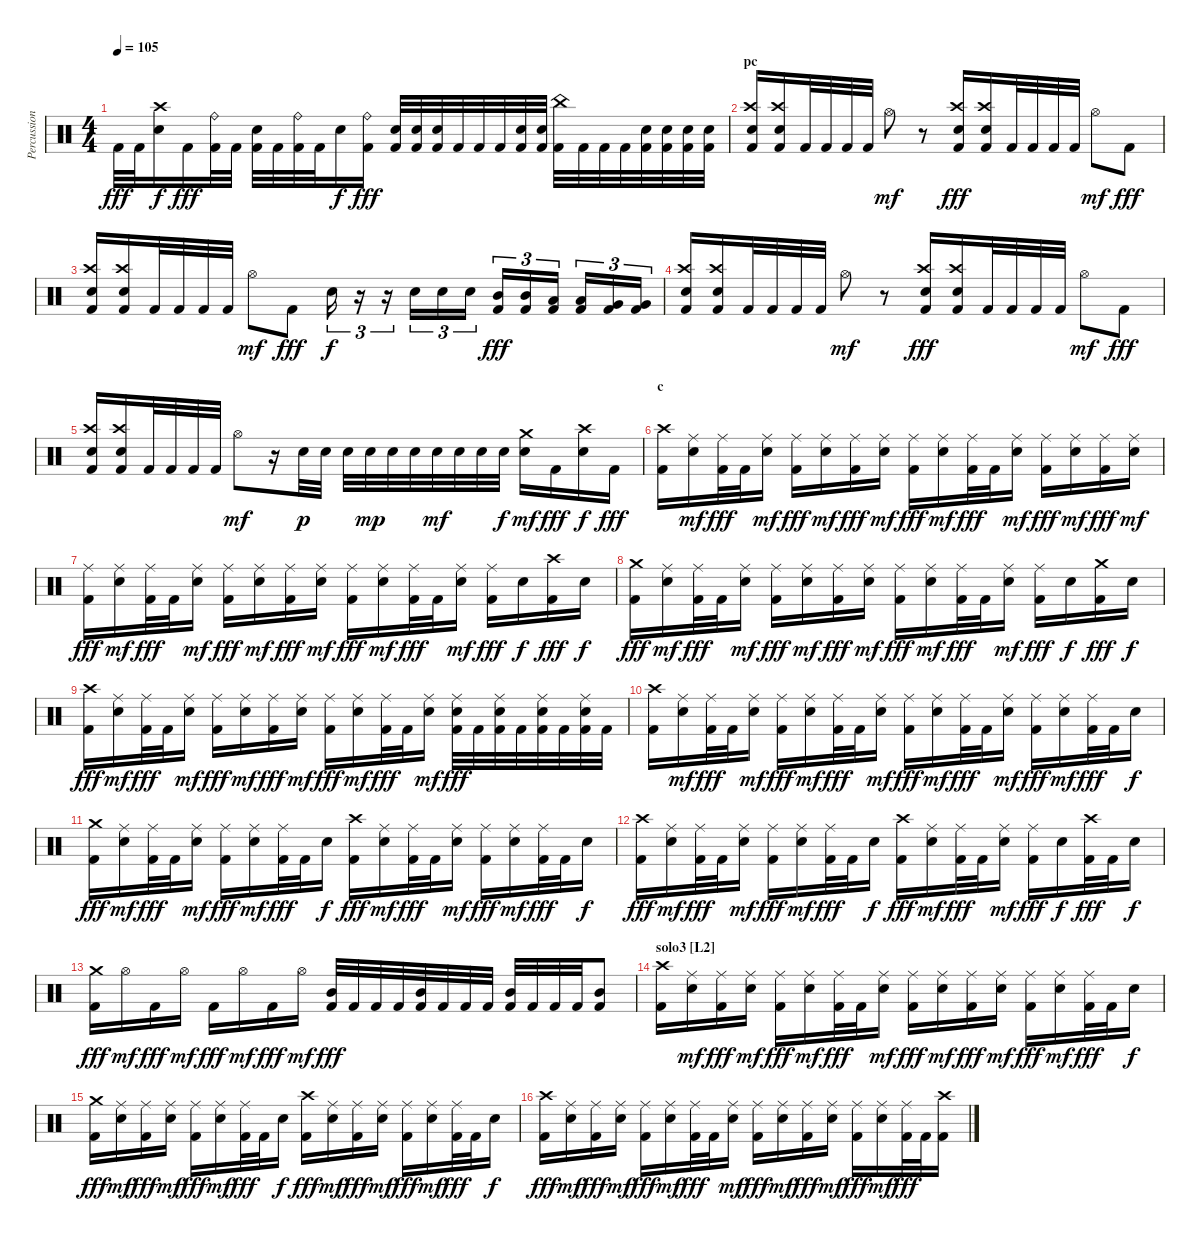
\track ("Percussion" "Percussion") {instrument percussion}
\staff {score}
\articulation defaults
\ts (4 4)
\tempo 105
\clef neutral
\ks c "Kick (hit) 2".32{dy fff} "Kick (hit) 2".32
("Crash high (hit)" "Snare (hit) 2").16{dy f} "Kick (hit) 2".16{dy fff} ("Ride (bell)" "Kick (hit) 2").32 "Kick (hit) 2".32 ("Snare (hit) 2" "Kick (hit) 2").32 "Kick (hit) 2".32 ("Ride (bell)" "Kick (hit) 2").32 "Kick (hit) 2".32 "Snare (hit) 2".16{dy f} ("Ride (bell)" "Kick (hit) 2").16{dy fff} ("Snare (hit) 2" "Kick (hit) 2").32 ("Snare (hit) 2" "Kick (hit) 2").32 ("Snare (hit) 2" "Kick (hit) 2").32 "Kick (hit) 2".32 "Kick (hit) 2".32 "Kick (hit) 2".32 ("Snare (hit) 2" "Kick (hit) 2").32 ("Snare (hit) 2" "Kick (hit) 2").32 ("China (hit)" "Kick (hit) 2").32 "Kick (hit) 2".32 "Kick (hit) 2".32 "Kick (hit) 2".32 ("Snare (hit) 2" "Kick (hit) 2").32 ("Snare (hit) 2" "Kick (hit) 2").32 ("Snare (hit) 2" "Kick (hit) 2").32 ("Snare (hit) 2" "Kick (hit) 2").32 |
\section ("" "pc")
("Crash high (hit)" "Snare (hit) 2" "Kick (hit) 2").16 ("Crash high (hit)" "Snare (hit) 2" "Kick (hit) 2").16 "Kick (hit) 2".32 "Kick (hit) 2".32 "Kick (hit) 2".32 "Kick (hit) 2".32 "Hi-Hat (open)".8{dy mf} r.8 ("Crash high (hit)" "Snare (hit) 2" "Kick (hit) 2").16{dy fff} ("Crash high (hit)" "Snare (hit) 2" "Kick (hit) 2").16 "Kick (hit) 2".32 "Kick (hit) 2".32 "Kick (hit) 2".32 "Kick (hit) 2".32 "Hi-Hat (open)".8{dy mf} "Kick (hit) 2".8{dy fff} |
("Crash high (hit)" "Snare (hit) 2" "Kick (hit) 2").16 ("Crash high (hit)" "Snare (hit) 2" "Kick (hit) 2").16 "Kick (hit) 2".32 "Kick (hit) 2".32 "Kick (hit) 2".32 "Kick (hit) 2".32 "Hi-Hat (open)".8{dy mf} "Kick (hit) 2".8{dy fff} "Snare (hit) 2".16{tu (3 2) dy f} r.16{tu (3 2)} r.16{tu (3 2)} "Snare (hit) 2".16{tu (3 2)} "Snare (hit) 2".16{tu (3 2)} "Snare (hit) 2".16{tu (3 2)} ("Mid Tom (hit)" "Kick (hit) 2").16{tu (3 2) dy fff} ("Mid Tom (hit)" "Kick (hit) 2").16{tu (3 2)} ("Low Tom (hit)" "Kick (hit) 2").16{tu (3 2)} ("Low Tom (hit)" "Kick (hit) 2").16{tu (3 2)} ("Very Low Tom (hit)" "Kick (hit) 2").16{tu (3 2)} ("Very Low Tom (hit)" "Kick (hit) 2").16{tu (3 2)} |
("Crash high (hit)" "Snare (hit) 2" "Kick (hit) 2").16 ("Crash high (hit)" "Snare (hit) 2" "Kick (hit) 2").16 "Kick (hit) 2".32 "Kick (hit) 2".32 "Kick (hit) 2".32 "Kick (hit) 2".32 "Hi-Hat (open)".8{dy mf} r.8 ("Crash high (hit)" "Snare (hit) 2" "Kick (hit) 2").16{dy fff} ("Crash high (hit)" "Snare (hit) 2" "Kick (hit) 2").16 "Kick (hit) 2".32 "Kick (hit) 2".32 "Kick (hit) 2".32 "Kick (hit) 2".32 "Hi-Hat (open)".8{dy mf} "Kick (hit) 2".8{dy fff} |
("Crash high (hit)" "Snare (hit) 2" "Kick (hit) 2").16 ("Crash high (hit)" "Snare (hit) 2" "Kick (hit) 2").16 "Kick (hit) 2".32 "Kick (hit) 2".32 "Kick (hit) 2".32 "Kick (hit) 2".32 "Hi-Hat (open)".8{dy mf} r.16 "Snare (hit) 2".32{dy p} "Snare (hit) 2".32 "Snare (hit) 2".32 "Snare (hit) 2".32{dy mp} "Snare (hit) 2".32 "Snare (hit) 2".32 "Snare (hit) 2".32{dy mf} "Snare (hit) 2".32 "Snare (hit) 2".32 "Snare (hit) 2".32{dy f} ("Crash medium (hit)" "Snare (hit) 2").16{dy mf} "Kick (hit) 2".16{dy fff} ("Crash high (hit)" "Snare (hit) 2").16{dy f} "Kick (hit) 2".16{dy fff} |
\section ("" "c")
("Crash high (hit)" "Kick (hit) 2").16 ("Ride (middle)" "Snare (hit) 2").16{dy mf} ("Ride (middle)" "Kick (hit) 2").32{dy fff} "Kick (hit) 2".32 ("Ride (middle)" "Snare (hit) 2").16{dy mf} ("Ride (middle)" "Kick (hit) 2").16{dy fff} ("Ride (middle)" "Snare (hit) 2").16{dy mf} ("Ride (middle)" "Kick (hit) 2").16{dy fff} ("Ride (middle)" "Snare (hit) 2").16{dy mf} ("Ride (middle)" "Kick (hit) 2").16{dy fff} ("Ride (middle)" "Snare (hit) 2").16{dy mf} ("Ride (middle)" "Kick (hit) 2").32{dy fff} "Kick (hit) 2".32 ("Ride (middle)" "Snare (hit) 2").16{dy mf} ("Ride (middle)" "Kick (hit) 2").16{dy fff} ("Ride (middle)" "Snare (hit) 2").16{dy mf} ("Ride (middle)" "Kick (hit) 2").16{dy fff} ("Ride (middle)" "Snare (hit) 2").16{dy mf} |
("Ride (middle)" "Kick (hit) 2").16{dy fff} ("Ride (middle)" "Snare (hit) 2").16{dy mf} ("Ride (middle)" "Kick (hit) 2").32{dy fff} "Kick (hit) 2".32 ("Ride (middle)" "Snare (hit) 2").16{dy mf} ("Ride (middle)" "Kick (hit) 2").16{dy fff} ("Ride (middle)" "Snare (hit) 2").16{dy mf} ("Ride (middle)" "Kick (hit) 2").16{dy fff} ("Ride (middle)" "Snare (hit) 2").16{dy mf} ("Ride (middle)" "Kick (hit) 2").16{dy fff} ("Ride (middle)" "Snare (hit) 2").16{dy mf} ("Ride (middle)" "Kick (hit) 2").32{dy fff} "Kick (hit) 2".32 ("Ride (middle)" "Snare (hit) 2").16{dy mf} ("Ride (middle)" "Kick (hit) 2").16{dy fff} "Snare (hit) 2".16{dy f} ("Crash high (hit)" "Kick (hit) 2").16{dy fff} "Snare (hit) 2".16{dy f} |
("Crash medium (hit)" "Kick (hit) 2").16{dy fff} ("Ride (middle)" "Snare (hit) 2").16{dy mf} ("Ride (middle)" "Kick (hit) 2").32{dy fff} "Kick (hit) 2".32 ("Ride (middle)" "Snare (hit) 2").16{dy mf} ("Ride (middle)" "Kick (hit) 2").16{dy fff} ("Ride (middle)" "Snare (hit) 2").16{dy mf} ("Ride (middle)" "Kick (hit) 2").16{dy fff} ("Ride (middle)" "Snare (hit) 2").16{dy mf} ("Ride (middle)" "Kick (hit) 2").16{dy fff} ("Ride (middle)" "Snare (hit) 2").16{dy mf} ("Ride (middle)" "Kick (hit) 2").32{dy fff} "Kick (hit) 2".32 ("Ride (middle)" "Snare (hit) 2").16{dy mf} ("Ride (middle)" "Kick (hit) 2").16{dy fff} "Snare (hit) 2".16{dy f} ("Crash medium (hit)" "Kick (hit) 2").16{dy fff} "Snare (hit) 2".16{dy f} |
("Crash high (hit)" "Kick (hit) 2").16{dy fff} ("Ride (middle)" "Snare (hit) 2").16{dy mf} ("Ride (middle)" "Kick (hit) 2").32{dy fff} "Kick (hit) 2".32 ("Ride (middle)" "Snare (hit) 2").16{dy mf} ("Ride (middle)" "Kick (hit) 2").16{dy fff} ("Ride (middle)" "Snare (hit) 2").16{dy mf} ("Ride (middle)" "Kick (hit) 2").16{dy fff} ("Ride (middle)" "Snare (hit) 2").16{dy mf} ("Ride (middle)" "Kick (hit) 2").16{dy fff} ("Ride (middle)" "Snare (hit) 2").16{dy mf} ("Ride (middle)" "Kick (hit) 2").32{dy fff} "Kick (hit) 2".32 ("Ride (middle)" "Snare (hit) 2").16{dy mf} ("Ride (middle)" "Snare (hit) 2" "Kick (hit) 2").32{dy fff} "Kick (hit) 2".32 ("Ride (middle)" "Snare (hit) 2" "Kick (hit) 2").32 "Kick (hit) 2".32 ("Ride (middle)" "Snare (hit) 2" "Kick (hit) 2").32 "Kick (hit) 2".32 ("Ride (middle)" "Snare (hit) 2" "Kick (hit) 2").32 "Kick (hit) 2".32 |
("Crash high (hit)" "Kick (hit) 2").16 ("Ride (middle)" "Snare (hit) 2").16{dy mf} ("Ride (middle)" "Kick (hit) 2").32{dy fff} "Kick (hit) 2".32 ("Ride (middle)" "Snare (hit) 2").16{dy mf} ("Ride (middle)" "Kick (hit) 2").16{dy fff} ("Ride (middle)" "Snare (hit) 2").16{dy mf} ("Ride (middle)" "Kick (hit) 2").32{dy fff} "Kick (hit) 2".32 ("Ride (middle)" "Snare (hit) 2").16{dy mf} ("Ride (middle)" "Kick (hit) 2").16{dy fff} ("Ride (middle)" "Snare (hit) 2").16{dy mf} ("Ride (middle)" "Kick (hit) 2").32{dy fff} "Kick (hit) 2".32 ("Ride (middle)" "Snare (hit) 2").16{dy mf} ("Ride (middle)" "Kick (hit) 2").16{dy fff} ("Ride (middle)" "Snare (hit) 2").16{dy mf} ("Ride (middle)" "Kick (hit) 2").32{dy fff} "Kick (hit) 2".32 "Snare (hit) 2".16{dy f} |
("Crash medium (hit)" "Kick (hit) 2").16{dy fff} ("Ride (middle)" "Snare (hit) 2").16{dy mf} ("Ride (middle)" "Kick (hit) 2").32{dy fff} "Kick (hit) 2".32 ("Ride (middle)" "Snare (hit) 2").16{dy mf} ("Ride (middle)" "Kick (hit) 2").16{dy fff} ("Ride (middle)" "Snare (hit) 2").16{dy mf} ("Ride (middle)" "Kick (hit) 2").32{dy fff} "Kick (hit) 2".32 "Snare (hit) 2".16{dy f} ("Crash high (hit)" "Kick (hit) 2").16{dy fff} ("Ride (middle)" "Snare (hit) 2").16{dy mf} ("Ride (middle)" "Kick (hit) 2").32{dy fff} "Kick (hit) 2".32 ("Ride (middle)" "Snare (hit) 2").16{dy mf} ("Ride (middle)" "Kick (hit) 2").16{dy fff} ("Ride (middle)" "Snare (hit) 2").16{dy mf} ("Ride (middle)" "Kick (hit) 2").32{dy fff} "Kick (hit) 2".32 "Snare (hit) 2".16{dy f} |
("Crash high (hit)" "Kick (hit) 2").16{dy fff} ("Ride (middle)" "Snare (hit) 2").16{dy mf} ("Ride (middle)" "Kick (hit) 2").32{dy fff} "Kick (hit) 2".32 ("Ride (middle)" "Snare (hit) 2").16{dy mf} ("Ride (middle)" "Kick (hit) 2").16{dy fff} ("Ride (middle)" "Snare (hit) 2").16{dy mf} ("Ride (middle)" "Kick (hit) 2").32{dy fff} "Kick (hit) 2".32 "Snare (hit) 2".16{dy f} ("Crash high (hit)" "Kick (hit) 2").16{dy fff} ("Ride (middle)" "Snare (hit) 2").16{dy mf} ("Ride (middle)" "Kick (hit) 2").32{dy fff} "Kick (hit) 2".32 ("Ride (middle)" "Snare (hit) 2").16{dy mf} ("Ride (middle)" "Kick (hit) 2").16{dy fff} "Snare (hit) 2".16{dy f} ("Crash high (hit)" "Kick (hit) 2").32{dy fff} "Kick (hit) 2".32 "Snare (hit) 2".16{dy f} |
("Crash medium (hit)" "Kick (hit) 2").16{dy fff} "Hi-Hat (open)".16{dy mf} "Kick (hit) 2".16{dy fff} "Hi-Hat (open)".16{dy mf} "Kick (hit) 2".16{dy fff} "Hi-Hat (open)".16{dy mf} "Kick (hit) 2".16{dy fff} "Hi-Hat (open)".16{dy mf} ("Mid Tom (hit)" "Kick (hit) 2").32{dy fff} "Kick (hit) 2".32 "Kick (hit) 2".32 "Kick (hit) 2".32 ("Mid Tom (hit)" "Kick (hit) 2").32 "Kick (hit) 2".32 "Kick (hit) 2".32 "Kick (hit) 2".32 ("Mid Tom (hit)" "Kick (hit) 2").32 "Kick (hit) 2".32 "Kick (hit) 2".32 "Kick (hit) 2".32 ("Mid Tom (hit)" "Kick (hit) 2").8 |
\section ("" "solo3 [L2]")
("Crash high (hit)" "Kick (hit) 2").16 ("Ride (middle)" "Snare (hit) 2").16{dy mf} ("Ride (middle)" "Kick (hit) 2").16{dy fff} ("Ride (middle)" "Snare (hit) 2").16{dy mf} ("Ride (middle)" "Kick (hit) 2").16{dy fff} ("Ride (middle)" "Snare (hit) 2").16{dy mf} ("Ride (middle)" "Kick (hit) 2").32{dy fff} "Kick (hit) 2".32 ("Ride (middle)" "Snare (hit) 2").16{dy mf} ("Ride (middle)" "Kick (hit) 2").16{dy fff} ("Ride (middle)" "Snare (hit) 2").16{dy mf} ("Ride (middle)" "Kick (hit) 2").16{dy fff} ("Ride (middle)" "Snare (hit) 2").16{dy mf} ("Ride (middle)" "Kick (hit) 2").16{dy fff} ("Ride (middle)" "Snare (hit) 2").16{dy mf} ("Ride (middle)" "Kick (hit) 2").32{dy fff} "Kick (hit) 2".32 "Snare (hit) 2".16{dy f} |
("Crash medium (hit)" "Kick (hit) 2").16{dy fff} ("Ride (middle)" "Snare (hit) 2").16{dy mf} ("Ride (middle)" "Kick (hit) 2").16{dy fff} ("Ride (middle)" "Snare (hit) 2").16{dy mf} ("Ride (middle)" "Kick (hit) 2").16{dy fff} ("Ride (middle)" "Snare (hit) 2").16{dy mf} ("Ride (middle)" "Kick (hit) 2").32{dy fff} "Kick (hit) 2".32 "Snare (hit) 2".16{dy f} ("Crash high (hit)" "Kick (hit) 2").16{dy fff} ("Ride (middle)" "Snare (hit) 2").16{dy mf} ("Ride (middle)" "Kick (hit) 2").16{dy fff} ("Ride (middle)" "Snare (hit) 2").16{dy mf} ("Ride (middle)" "Kick (hit) 2").16{dy fff} ("Ride (middle)" "Snare (hit) 2").16{dy mf} ("Ride (middle)" "Kick (hit) 2").32{dy fff} "Kick (hit) 2".32 "Snare (hit) 2".16{dy f} |
("Crash high (hit)" "Kick (hit) 2").16{dy fff} ("Ride (middle)" "Snare (hit) 2").16{dy mf} ("Ride (middle)" "Kick (hit) 2").16{dy fff} ("Ride (middle)" "Snare (hit) 2").16{dy mf} ("Ride (middle)" "Kick (hit) 2").16{dy fff} ("Ride (middle)" "Snare (hit) 2").16{dy mf} ("Ride (middle)" "Kick (hit) 2").32{dy fff} "Kick (hit) 2".32 ("Ride (middle)" "Snare (hit) 2").16{dy mf} ("Ride (middle)" "Kick (hit) 2").16{dy fff} ("Ride (middle)" "Snare (hit) 2").16{dy mf} ("Ride (middle)" "Kick (hit) 2").16{dy fff} ("Ride (middle)" "Snare (hit) 2").16{dy mf} ("Ride (middle)" "Kick (hit) 2").16{dy fff} ("Ride (middle)" "Snare (hit) 2").16{dy mf} ("Ride (middle)" "Kick (hit) 2").32{dy fff} "Kick (hit) 2".32 ("Crash high (hit)" "Kick (hit) 2").16
